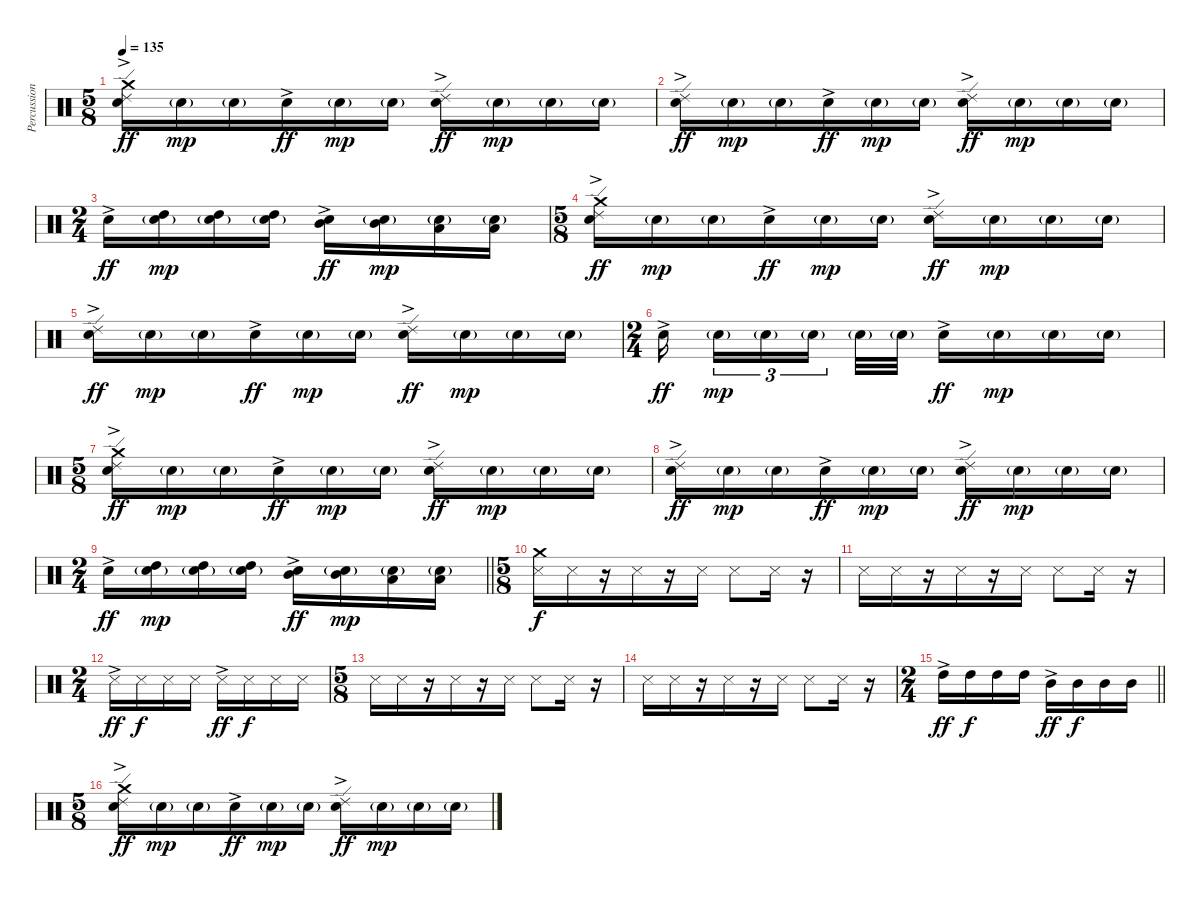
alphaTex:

\track ("Percussion" "Percussion") {instrument percussion}
\staff {score}
\articulation defaults
\ts (5 8)
\tempo 135
\clef neutral
\ks c
("Ride (edge) 2" "Crash medium (hit)" "Snare (hit) 2"{ac}).16{dy ff} "Snare (hit) 2"{g}.16{dy mp} "Snare (hit) 2"{g}.16 "Snare (hit) 2"{ac}.16{dy ff} "Snare (hit) 2"{g}.16{dy mp} "Snare (hit) 2"{g}.16 ("Ride (edge) 2" "Snare (hit) 2"{ac}).16{dy ff} "Snare (hit) 2"{g}.16{dy mp} "Snare (hit) 2"{g}.16 "Snare (hit) 2"{g}.16 |
("Ride (edge) 2" "Snare (hit) 2"{ac}).16{dy ff} "Snare (hit) 2"{g}.16{dy mp} "Snare (hit) 2"{g}.16 "Snare (hit) 2"{ac}.16{dy ff} "Snare (hit) 2"{g}.16{dy mp} "Snare (hit) 2"{g}.16 ("Ride (edge) 2" "Snare (hit) 2"{ac}).16{dy ff} "Snare (hit) 2"{g}.16{dy mp} "Snare (hit) 2"{g}.16 "Snare (hit) 2"{g}.16 |
\ts (2 4)
"Snare (hit) 2"{ac}.16{dy ff} ("High Tom (hit)" "Snare (hit) 2"{g}).16{dy mp} ("High Tom (hit)" "Snare (hit) 2"{g}).16 ("High Tom (hit)" "Snare (hit) 2"{g}).16 ("Mid Tom (hit)" "Snare (hit) 2"{ac}).16{dy ff} ("Mid Tom (hit)" "Snare (hit) 2"{g}).16{dy mp} ("Low Tom (hit)" "Snare (hit) 2"{g}).16 ("Low Tom (hit)" "Snare (hit) 2"{g}).16 |
\ts (5 8)
("Ride (edge) 2" "Crash medium (hit)" "Snare (hit) 2"{ac}).16{dy ff} "Snare (hit) 2"{g}.16{dy mp} "Snare (hit) 2"{g}.16 "Snare (hit) 2"{ac}.16{dy ff} "Snare (hit) 2"{g}.16{dy mp} "Snare (hit) 2"{g}.16 ("Ride (edge) 2" "Snare (hit) 2"{ac}).16{dy ff} "Snare (hit) 2"{g}.16{dy mp} "Snare (hit) 2"{g}.16 "Snare (hit) 2"{g}.16 |
("Ride (edge) 2" "Snare (hit) 2"{ac}).16{dy ff} "Snare (hit) 2"{g}.16{dy mp} "Snare (hit) 2"{g}.16 "Snare (hit) 2"{ac}.16{dy ff} "Snare (hit) 2"{g}.16{dy mp} "Snare (hit) 2"{g}.16 ("Ride (edge) 2" "Snare (hit) 2"{ac}).16{dy ff} "Snare (hit) 2"{g}.16{dy mp} "Snare (hit) 2"{g}.16 "Snare (hit) 2"{g}.16 |
\ts (2 4)
"Snare (hit) 2"{ac}.16{dy ff beam splitsecondary} "Snare (hit) 2"{g}.16{tu (3 2) dy mp} "Snare (hit) 2"{g}.16{tu (3 2)} "Snare (hit) 2"{g}.16{tu (3 2) beam splitsecondary} "Snare (hit) 2"{g}.32 "Snare (hit) 2"{g}.32 "Snare (hit) 2"{ac}.16{dy ff} "Snare (hit) 2"{g}.16{dy mp} "Snare (hit) 2"{g}.16 "Snare (hit) 2"{g}.16 |
\ts (5 8)
("Ride (edge) 2" "Crash medium (hit)" "Snare (hit) 2"{ac}).16{dy ff} "Snare (hit) 2"{g}.16{dy mp} "Snare (hit) 2"{g}.16 "Snare (hit) 2"{ac}.16{dy ff} "Snare (hit) 2"{g}.16{dy mp} "Snare (hit) 2"{g}.16 ("Ride (edge) 2" "Snare (hit) 2"{ac}).16{dy ff} "Snare (hit) 2"{g}.16{dy mp} "Snare (hit) 2"{g}.16 "Snare (hit) 2"{g}.16 |
("Ride (edge) 2" "Snare (hit) 2"{ac}).16{dy ff} "Snare (hit) 2"{g}.16{dy mp} "Snare (hit) 2"{g}.16 "Snare (hit) 2"{ac}.16{dy ff} "Snare (hit) 2"{g}.16{dy mp} "Snare (hit) 2"{g}.16 ("Ride (edge) 2" "Snare (hit) 2"{ac}).16{dy ff} "Snare (hit) 2"{g}.16{dy mp} "Snare (hit) 2"{g}.16 "Snare (hit) 2"{g}.16 |
\ts (2 4)
\barLineRight lightlight "Snare (hit) 2"{ac}.16{dy ff}
("High Tom (hit)" "Snare (hit) 2"{g}).16{dy mp} ("High Tom (hit)" "Snare (hit) 2"{g}).16 ("High Tom (hit)" "Snare (hit) 2"{g}).16 ("Mid Tom (hit)" "Snare (hit) 2"{ac}).16{dy ff} ("Mid Tom (hit)" "Snare (hit) 2"{g}).16{dy mp} ("Low Tom (hit)" "Snare (hit) 2"{g}).16 ("Low Tom (hit)" "Snare (hit) 2"{g}).16 |
\ts (5 8)
\section ("" "")
("Crash medium (hit)" "Snare (side stick) 3").16{dy f} "Snare (side stick) 3".16 r.16 "Snare (side stick) 3".16 r.16 "Snare (side stick) 3".16 "Snare (side stick) 3".8 "Snare (side stick) 3".16 r.16 |
"Snare (side stick) 3".16 "Snare (side stick) 3".16 r.16 "Snare (side stick) 3".16 r.16 "Snare (side stick) 3".16 "Snare (side stick) 3".8 "Snare (side stick) 3".16 r.16 |
\ts (2 4)
"Snare (side stick) 3"{ac}.16{dy ff} "Snare (side stick) 3".16{dy f} "Snare (side stick) 3".16 "Snare (side stick) 3".16 "Snare (side stick) 3"{ac}.16{dy ff} "Snare (side stick) 3".16{dy f} "Snare (side stick) 3".16 "Snare (side stick) 3".16 |
\ts (5 8)
"Snare (side stick) 3".16 "Snare (side stick) 3".16 r.16 "Snare (side stick) 3".16 r.16 "Snare (side stick) 3".16 "Snare (side stick) 3".8 "Snare (side stick) 3".16 r.16 |
"Snare (side stick) 3".16 "Snare (side stick) 3".16 r.16 "Snare (side stick) 3".16 r.16 "Snare (side stick) 3".16 "Snare (side stick) 3".8 "Snare (side stick) 3".16 r.16 |
\ts (2 4)
\barLineRight lightlight "High Tom (hit)"{ac}.16{dy ff} "High Tom (hit)".16{dy f} "High Tom (hit)".16 "High Tom (hit)".16 "Mid Tom (hit)"{ac}.16{dy ff} "Mid Tom (hit)".16{dy f} "Mid Tom (hit)".16 "Mid Tom (hit)".16
|
\ts (5 8)
\section ("" "")
("Ride (edge) 2" "Crash medium (hit)" "Snare (hit) 2"{ac}).16{dy ff} "Snare (hit) 2"{g}.16{dy mp} "Snare (hit) 2"{g}.16 "Snare (hit) 2"{ac}.16{dy ff} "Snare (hit) 2"{g}.16{dy mp} "Snare (hit) 2"{g}.16 ("Ride (edge) 2" "Snare (hit) 2"{ac}).16{dy ff} "Snare (hit) 2"{g}.16{dy mp} "Snare (hit) 2"{g}.16 "Snare (hit) 2"{g}.16
